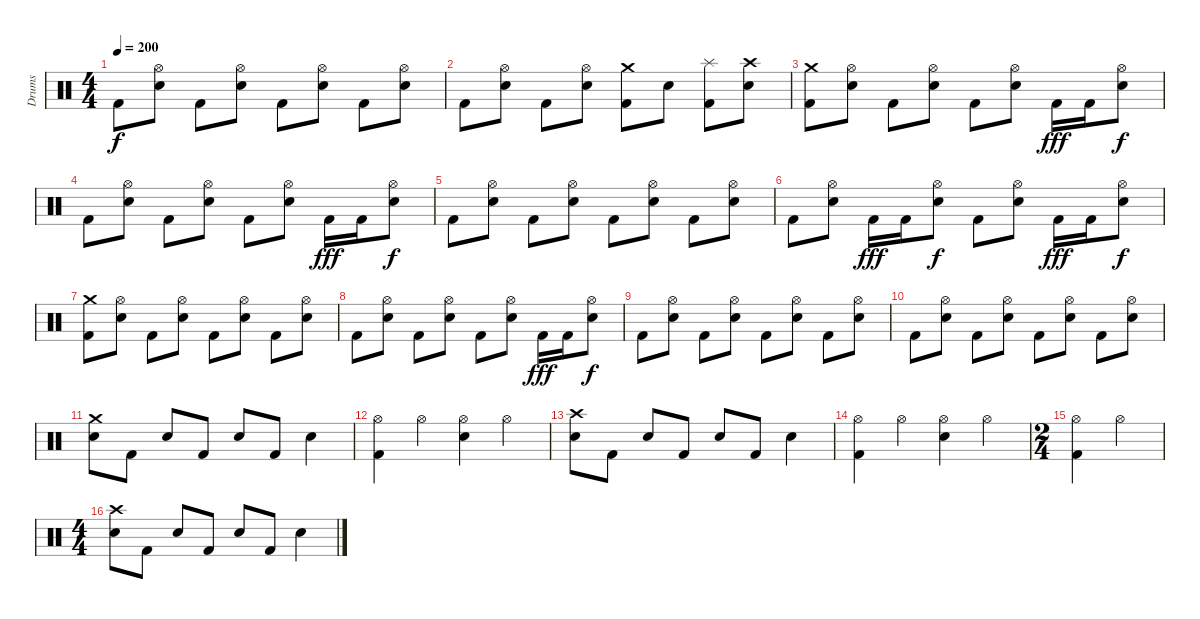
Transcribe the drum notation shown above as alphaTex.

\track ("Drums" "Drums") {instrument percussion}
\staff {score}
\articulation defaults
\ts (4 4)
\tempo 200
\clef neutral
\ks c "Kick (hit) 2".8{dy f}
("Hi-Hat (open)" "Snare (hit) 2").8 "Kick (hit) 2".8 ("Hi-Hat (open)" "Snare (hit) 2").8 "Kick (hit) 2".8 ("Hi-Hat (open)" "Snare (hit) 2").8 "Kick (hit) 2".8 ("Hi-Hat (open)" "Snare (hit) 2").8 |
"Kick (hit) 2".8 ("Hi-Hat (open)" "Snare (hit) 2").8 "Kick (hit) 2".8 ("Hi-Hat (open)" "Snare (hit) 2").8 ("Crash medium (hit)" "Kick (hit) 2").8 "Snare (hit) 2".8 ("Splash (hit)" "Kick (hit) 2").8 ("Crash high (hit)" "Snare (hit) 2").8 |
("Crash medium (hit)" "Kick (hit) 2").8 ("Hi-Hat (open)" "Snare (hit) 2").8 "Kick (hit) 2".8 ("Hi-Hat (open)" "Snare (hit) 2").8 "Kick (hit) 2".8 ("Hi-Hat (open)" "Snare (hit) 2").8 "Kick (hit) 2".16{dy fff} "Kick (hit) 2".16 ("Hi-Hat (open)" "Snare (hit) 2").8{dy f} |
"Kick (hit) 2".8 ("Hi-Hat (open)" "Snare (hit) 2").8 "Kick (hit) 2".8 ("Hi-Hat (open)" "Snare (hit) 2").8 "Kick (hit) 2".8 ("Hi-Hat (open)" "Snare (hit) 2").8 "Kick (hit) 2".16{dy fff} "Kick (hit) 2".16 ("Hi-Hat (open)" "Snare (hit) 2").8{dy f} |
"Kick (hit) 2".8 ("Hi-Hat (open)" "Snare (hit) 2").8 "Kick (hit) 2".8 ("Hi-Hat (open)" "Snare (hit) 2").8 "Kick (hit) 2".8 ("Hi-Hat (open)" "Snare (hit) 2").8 "Kick (hit) 2".8 ("Hi-Hat (open)" "Snare (hit) 2").8 |
"Kick (hit) 2".8 ("Hi-Hat (open)" "Snare (hit) 2").8 "Kick (hit) 2".16{dy fff} "Kick (hit) 2".16 ("Hi-Hat (open)" "Snare (hit) 2").8{dy f} "Kick (hit) 2".8 ("Hi-Hat (open)" "Snare (hit) 2").8 "Kick (hit) 2".16{dy fff} "Kick (hit) 2".16 ("Hi-Hat (open)" "Snare (hit) 2").8{dy f} |
("Crash medium (hit)" "Kick (hit) 2").8 ("Hi-Hat (open)" "Snare (hit) 2").8 "Kick (hit) 2".8 ("Hi-Hat (open)" "Snare (hit) 2").8 "Kick (hit) 2".8 ("Hi-Hat (open)" "Snare (hit) 2").8 "Kick (hit) 2".8 ("Hi-Hat (open)" "Snare (hit) 2").8 |
"Kick (hit) 2".8 ("Hi-Hat (open)" "Snare (hit) 2").8 "Kick (hit) 2".8 ("Hi-Hat (open)" "Snare (hit) 2").8 "Kick (hit) 2".8 ("Hi-Hat (open)" "Snare (hit) 2").8 "Kick (hit) 2".16{dy fff} "Kick (hit) 2".16 ("Hi-Hat (open)" "Snare (hit) 2").8{dy f} |
"Kick (hit) 2".8 ("Hi-Hat (open)" "Snare (hit) 2").8 "Kick (hit) 2".8 ("Hi-Hat (open)" "Snare (hit) 2").8 "Kick (hit) 2".8 ("Hi-Hat (open)" "Snare (hit) 2").8 "Kick (hit) 2".8 ("Hi-Hat (open)" "Snare (hit) 2").8 |
"Kick (hit) 2".8 ("Hi-Hat (open)" "Snare (hit) 2").8 "Kick (hit) 2".8 ("Hi-Hat (open)" "Snare (hit) 2").8 "Kick (hit) 2".8 ("Hi-Hat (open)" "Snare (hit) 2").8 "Kick (hit) 2".8 ("Hi-Hat (open)" "Snare (hit) 2").8 |
("Crash medium (hit)" "Snare (hit) 2").8 "Kick (hit) 2".8 "Snare (hit) 2".8 "Kick (hit) 2".8 "Snare (hit) 2".8 "Kick (hit) 2".8 "Snare (hit) 2".4 |
("Hi-Hat (open)" "Kick (hit) 2").4 "Hi-Hat (open)".4 ("Hi-Hat (open)" "Snare (hit) 2").4 "Hi-Hat (open)".4 |
("Crash high (hit)" "Snare (hit) 2").8 "Kick (hit) 2".8 "Snare (hit) 2".8 "Kick (hit) 2".8 "Snare (hit) 2".8 "Kick (hit) 2".8 "Snare (hit) 2".4 |
("Hi-Hat (open)" "Kick (hit) 2").4 "Hi-Hat (open)".4 ("Hi-Hat (open)" "Snare (hit) 2").4 "Hi-Hat (open)".4 |
\ts (2 4)
("Hi-Hat (open)" "Kick (hit) 2").4 "Hi-Hat (open)".4 |
\ts (4 4)
("Crash high (hit)" "Snare (hit) 2").8 "Kick (hit) 2".8 "Snare (hit) 2".8 "Kick (hit) 2".8 "Snare (hit) 2".8 "Kick (hit) 2".8 "Snare (hit) 2".4
